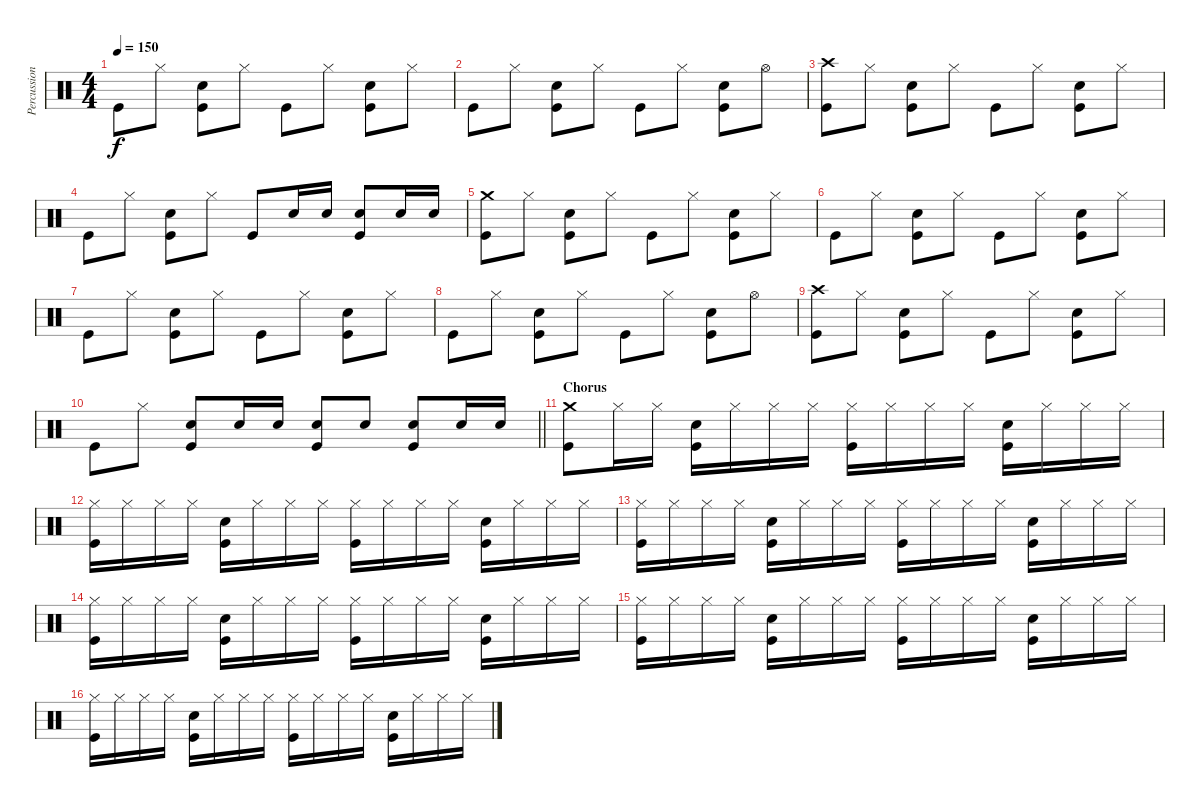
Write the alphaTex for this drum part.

\track ("Percussion" "Percussion") {instrument percussion}
\staff {score}
\articulation defaults
\ts (4 4)
\tempo 150
\clef neutral
\ks c "Kick (hit)".8{dy f} "Hi-Hat (closed)".8
("Snare (hit) 2" "Kick (hit)").8 "Hi-Hat (closed)".8 "Kick (hit)".8 "Hi-Hat (closed)".8 ("Snare (hit) 2" "Kick (hit)").8 "Hi-Hat (closed)".8 |
"Kick (hit)".8 "Hi-Hat (closed)".8 ("Snare (hit) 2" "Kick (hit)").8 "Hi-Hat (closed)".8 "Kick (hit)".8 "Hi-Hat (closed)".8 ("Snare (hit) 2" "Kick (hit)").8 "Hi-Hat (open)".8 |
("Crash high (hit)" "Kick (hit)").8 "Hi-Hat (closed)".8 ("Snare (hit) 2" "Kick (hit)").8 "Hi-Hat (closed)".8 "Kick (hit)".8 "Hi-Hat (closed)".8 ("Snare (hit) 2" "Kick (hit)").8 "Hi-Hat (closed)".8 |
"Kick (hit)".8 "Hi-Hat (closed)".8 ("Snare (hit) 2" "Kick (hit)").8 "Hi-Hat (closed)".8 "Kick (hit)".8 "Snare (hit) 2".16 "Snare (hit) 2".16 ("Snare (hit) 2" "Kick (hit)").8 "Snare (hit) 2".16 "Snare (hit) 2".16 |
("Crash medium (hit)" "Kick (hit)").8 "Hi-Hat (closed)".8 ("Snare (hit) 2" "Kick (hit)").8 "Hi-Hat (closed)".8 "Kick (hit)".8 "Hi-Hat (closed)".8 ("Snare (hit) 2" "Kick (hit)").8 "Hi-Hat (closed)".8 |
"Kick (hit)".8 "Hi-Hat (closed)".8 ("Snare (hit) 2" "Kick (hit)").8 "Hi-Hat (closed)".8 "Kick (hit)".8 "Hi-Hat (closed)".8 ("Snare (hit) 2" "Kick (hit)").8 "Hi-Hat (closed)".8 |
"Kick (hit)".8 "Hi-Hat (closed)".8 ("Snare (hit) 2" "Kick (hit)").8 "Hi-Hat (closed)".8 "Kick (hit)".8 "Hi-Hat (closed)".8 ("Snare (hit) 2" "Kick (hit)").8 "Hi-Hat (closed)".8 |
"Kick (hit)".8 "Hi-Hat (closed)".8 ("Snare (hit) 2" "Kick (hit)").8 "Hi-Hat (closed)".8 "Kick (hit)".8 "Hi-Hat (closed)".8 ("Snare (hit) 2" "Kick (hit)").8 "Hi-Hat (open)".8 |
("Crash high (hit)" "Kick (hit)").8 "Hi-Hat (closed)".8 ("Snare (hit) 2" "Kick (hit)").8 "Hi-Hat (closed)".8 "Kick (hit)".8 "Hi-Hat (closed)".8 ("Snare (hit) 2" "Kick (hit)").8 "Hi-Hat (closed)".8 |
\barLineRight lightlight "Kick (hit)".8 "Hi-Hat (closed)".8
("Snare (hit) 2" "Kick (hit)").8 "Snare (hit) 2".16 "Snare (hit) 2".16 ("Snare (hit) 2" "Kick (hit)").8 "Snare (hit) 2".8 ("Snare (hit) 2" "Kick (hit)").8 "Snare (hit) 2".16 "Snare (hit) 2".16 |
\section ("" "Chorus")
("Crash medium (hit)" "Kick (hit)").8 "Hi-Hat (closed)".16 "Hi-Hat (closed)".16 ("Snare (hit) 2" "Kick (hit)").16 "Hi-Hat (closed)".16 "Hi-Hat (closed)".16 "Hi-Hat (closed)".16 ("Hi-Hat (closed)" "Kick (hit)").16 "Hi-Hat (closed)".16 "Hi-Hat (closed)".16 "Hi-Hat (closed)".16 ("Snare (hit) 2" "Kick (hit)").16 "Hi-Hat (closed)".16 "Hi-Hat (closed)".16 "Hi-Hat (closed)".16 |
("Hi-Hat (closed)" "Kick (hit)").16 "Hi-Hat (closed)".16 "Hi-Hat (closed)".16 "Hi-Hat (closed)".16 ("Snare (hit) 2" "Kick (hit)").16 "Hi-Hat (closed)".16 "Hi-Hat (closed)".16 "Hi-Hat (closed)".16 ("Hi-Hat (closed)" "Kick (hit)").16 "Hi-Hat (closed)".16 "Hi-Hat (closed)".16 "Hi-Hat (closed)".16 ("Snare (hit) 2" "Kick (hit)").16 "Hi-Hat (closed)".16 "Hi-Hat (closed)".16 "Hi-Hat (closed)".16 |
("Hi-Hat (closed)" "Kick (hit)").16 "Hi-Hat (closed)".16 "Hi-Hat (closed)".16 "Hi-Hat (closed)".16 ("Snare (hit) 2" "Kick (hit)").16 "Hi-Hat (closed)".16 "Hi-Hat (closed)".16 "Hi-Hat (closed)".16 ("Hi-Hat (closed)" "Kick (hit)").16 "Hi-Hat (closed)".16 "Hi-Hat (closed)".16 "Hi-Hat (closed)".16 ("Snare (hit) 2" "Kick (hit)").16 "Hi-Hat (closed)".16 "Hi-Hat (closed)".16 "Hi-Hat (closed)".16 |
("Hi-Hat (closed)" "Kick (hit)").16 "Hi-Hat (closed)".16 "Hi-Hat (closed)".16 "Hi-Hat (closed)".16 ("Snare (hit) 2" "Kick (hit)").16 "Hi-Hat (closed)".16 "Hi-Hat (closed)".16 "Hi-Hat (closed)".16 ("Hi-Hat (closed)" "Kick (hit)").16 "Hi-Hat (closed)".16 "Hi-Hat (closed)".16 "Hi-Hat (closed)".16 ("Snare (hit) 2" "Kick (hit)").16 "Hi-Hat (closed)".16 "Hi-Hat (closed)".16 "Hi-Hat (closed)".16 |
("Hi-Hat (closed)" "Kick (hit)").16 "Hi-Hat (closed)".16 "Hi-Hat (closed)".16 "Hi-Hat (closed)".16 ("Snare (hit) 2" "Kick (hit)").16 "Hi-Hat (closed)".16 "Hi-Hat (closed)".16 "Hi-Hat (closed)".16 ("Hi-Hat (closed)" "Kick (hit)").16 "Hi-Hat (closed)".16 "Hi-Hat (closed)".16 "Hi-Hat (closed)".16 ("Snare (hit) 2" "Kick (hit)").16 "Hi-Hat (closed)".16 "Hi-Hat (closed)".16 "Hi-Hat (closed)".16 |
("Hi-Hat (closed)" "Kick (hit)").16 "Hi-Hat (closed)".16 "Hi-Hat (closed)".16 "Hi-Hat (closed)".16 ("Snare (hit) 2" "Kick (hit)").16 "Hi-Hat (closed)".16 "Hi-Hat (closed)".16 "Hi-Hat (closed)".16 ("Hi-Hat (closed)" "Kick (hit)").16 "Hi-Hat (closed)".16 "Hi-Hat (closed)".16 "Hi-Hat (closed)".16 ("Snare (hit) 2" "Kick (hit)").16 "Hi-Hat (closed)".16 "Hi-Hat (closed)".16 "Hi-Hat (closed)".16
